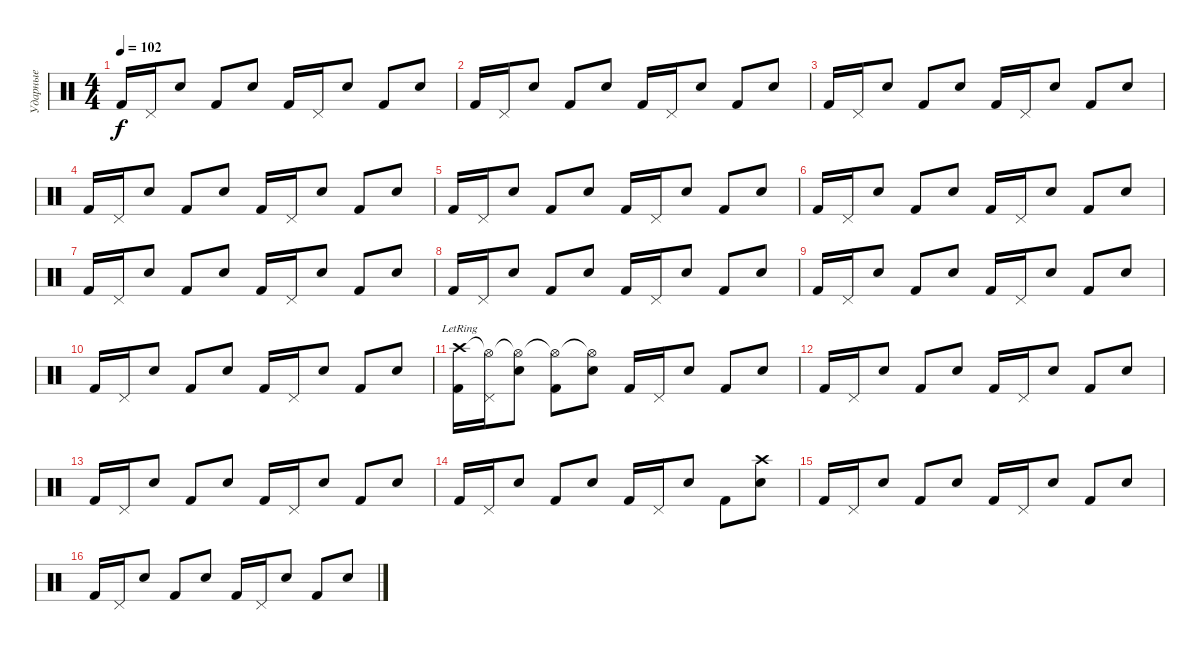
\track ("Ударные" "Ударные") {instrument percussion}
\staff {score}
\articulation defaults
\ts (4 4)
\tempo 102
\clef neutral
\ks c "Kick (hit) 2".16{dy f} "Pedal Hi-Hat (hit)".16 "Snare (hit) 2".8 "Kick (hit) 2".8 "Snare (hit) 2".8 "Kick (hit) 2".16 "Pedal Hi-Hat (hit)".16 "Snare (hit) 2".8 "Kick (hit) 2".8 "Snare (hit) 2".8
|
"Kick (hit) 2".16 "Pedal Hi-Hat (hit)".16 "Snare (hit) 2".8 "Kick (hit) 2".8 "Snare (hit) 2".8 "Kick (hit) 2".16 "Pedal Hi-Hat (hit)".16 "Snare (hit) 2".8 "Kick (hit) 2".8 "Snare (hit) 2".8 |
"Kick (hit) 2".16 "Pedal Hi-Hat (hit)".16 "Snare (hit) 2".8 "Kick (hit) 2".8 "Snare (hit) 2".8 "Kick (hit) 2".16 "Pedal Hi-Hat (hit)".16 "Snare (hit) 2".8 "Kick (hit) 2".8 "Snare (hit) 2".8 |
"Kick (hit) 2".16 "Pedal Hi-Hat (hit)".16 "Snare (hit) 2".8 "Kick (hit) 2".8 "Snare (hit) 2".8 "Kick (hit) 2".16 "Pedal Hi-Hat (hit)".16 "Snare (hit) 2".8 "Kick (hit) 2".8 "Snare (hit) 2".8 |
"Kick (hit) 2".16 "Pedal Hi-Hat (hit)".16 "Snare (hit) 2".8 "Kick (hit) 2".8 "Snare (hit) 2".8 "Kick (hit) 2".16 "Pedal Hi-Hat (hit)".16 "Snare (hit) 2".8 "Kick (hit) 2".8 "Snare (hit) 2".8 |
"Kick (hit) 2".16 "Pedal Hi-Hat (hit)".16 "Snare (hit) 2".8 "Kick (hit) 2".8 "Snare (hit) 2".8 "Kick (hit) 2".16 "Pedal Hi-Hat (hit)".16 "Snare (hit) 2".8 "Kick (hit) 2".8 "Snare (hit) 2".8 |
"Kick (hit) 2".16 "Pedal Hi-Hat (hit)".16 "Snare (hit) 2".8 "Kick (hit) 2".8 "Snare (hit) 2".8 "Kick (hit) 2".16 "Pedal Hi-Hat (hit)".16 "Snare (hit) 2".8 "Kick (hit) 2".8 "Snare (hit) 2".8 |
"Kick (hit) 2".16 "Pedal Hi-Hat (hit)".16 "Snare (hit) 2".8 "Kick (hit) 2".8 "Snare (hit) 2".8 "Kick (hit) 2".16 "Pedal Hi-Hat (hit)".16 "Snare (hit) 2".8 "Kick (hit) 2".8 "Snare (hit) 2".8 |
"Kick (hit) 2".16 "Pedal Hi-Hat (hit)".16 "Snare (hit) 2".8 "Kick (hit) 2".8 "Snare (hit) 2".8 "Kick (hit) 2".16 "Pedal Hi-Hat (hit)".16 "Snare (hit) 2".8 "Kick (hit) 2".8 "Snare (hit) 2".8 |
"Kick (hit) 2".16 "Pedal Hi-Hat (hit)".16 "Snare (hit) 2".8 "Kick (hit) 2".8 "Snare (hit) 2".8 "Kick (hit) 2".16 "Pedal Hi-Hat (hit)".16 "Snare (hit) 2".8 "Kick (hit) 2".8 "Snare (hit) 2".8 |
("Crash high (hit)"{lr} "Kick (hit) 2").16 ("Hi-Hat (open)"{t} "Pedal Hi-Hat (hit)").16 ("Hi-Hat (open)"{t} "Snare (hit) 2").8 ("Hi-Hat (open)"{t} "Kick (hit) 2").8 ("Hi-Hat (open)"{t} "Snare (hit) 2").8 "Kick (hit) 2".16 "Pedal Hi-Hat (hit)".16 "Snare (hit) 2".8 "Kick (hit) 2".8 "Snare (hit) 2".8 |
"Kick (hit) 2".16 "Pedal Hi-Hat (hit)".16 "Snare (hit) 2".8 "Kick (hit) 2".8 "Snare (hit) 2".8 "Kick (hit) 2".16 "Pedal Hi-Hat (hit)".16 "Snare (hit) 2".8 "Kick (hit) 2".8 "Snare (hit) 2".8 |
"Kick (hit) 2".16 "Pedal Hi-Hat (hit)".16 "Snare (hit) 2".8 "Kick (hit) 2".8 "Snare (hit) 2".8 "Kick (hit) 2".16 "Pedal Hi-Hat (hit)".16 "Snare (hit) 2".8 "Kick (hit) 2".8 "Snare (hit) 2".8 |
"Kick (hit) 2".16 "Pedal Hi-Hat (hit)".16 "Snare (hit) 2".8 "Kick (hit) 2".8 "Snare (hit) 2".8 "Kick (hit) 2".16 "Pedal Hi-Hat (hit)".16 "Snare (hit) 2".8 "Kick (hit) 2".8 ("Crash high (hit)" "Snare (hit) 2").8 |
"Kick (hit) 2".16 "Pedal Hi-Hat (hit)".16 "Snare (hit) 2".8 "Kick (hit) 2".8 "Snare (hit) 2".8 "Kick (hit) 2".16 "Pedal Hi-Hat (hit)".16 "Snare (hit) 2".8 "Kick (hit) 2".8 "Snare (hit) 2".8 |
"Kick (hit) 2".16 "Pedal Hi-Hat (hit)".16 "Snare (hit) 2".8 "Kick (hit) 2".8 "Snare (hit) 2".8 "Kick (hit) 2".16 "Pedal Hi-Hat (hit)".16 "Snare (hit) 2".8 "Kick (hit) 2".8 "Snare (hit) 2".8
